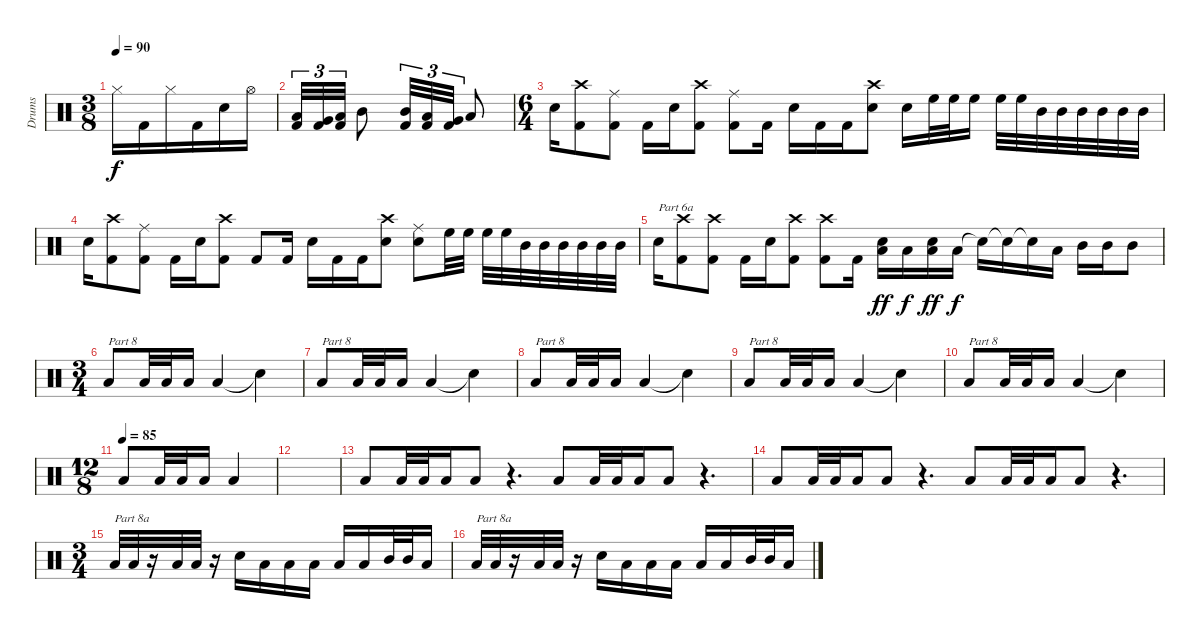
\track ("Drums" "Drums") {instrument percussion}
\staff {score}
\articulation defaults
\ts (3 8)
\tempo 90
\clef neutral
\ks c "Hi-Hat (closed)".16{dy f} "Kick (hit) 2".16 "Hi-Hat (closed)".16 "Kick (hit) 2".16 "Snare (hit) 2".16 "Hi-Hat (open)".16
|
("Low Floor Tom (hit)" "Kick (hit) 2").32{tu (3 2)} ("Very Low Tom (hit)" "Kick (hit) 2").32{tu (3 2)} ("Low Tom (hit)" "Kick (hit) 2").32{tu (3 2)} "Mid Tom (hit)".8 ("Mid Tom (hit)" "Kick (hit) 2").32{tu (3 2)} ("Low Tom (hit)" "Kick (hit) 2").32{tu (3 2)} ("Very Low Tom (hit)" "Kick (hit) 2").32{tu (3 2)} "Low Floor Tom (hit)".8 |
\ts (6 4)
"Snare (hit) 2".16 ("Crash high (hit)" "Kick (hit) 2").8 ("Ride (middle)" "Kick (hit) 2").8 "Kick (hit) 2".16 "Snare (hit) 2".16 ("Crash high (hit)" "Kick (hit) 2").8 ("Ride (middle)" "Kick (hit) 2").8 "Kick (hit) 2".16 "Snare (hit) 2".16 "Kick (hit) 2".16 "Kick (hit) 2".16 ("Crash high (hit)" "Snare (hit) 2").8 "Snare (hit) 2".16 "High Floor Tom (hit)".32 "High Floor Tom (hit)".32 "High Floor Tom (hit)".16 "High Floor Tom (hit)".32 "High Floor Tom (hit)".32 "Mid Tom (hit)".32 "Mid Tom (hit)".32 "Mid Tom (hit)".32 "Mid Tom (hit)".32 "Mid Tom (hit)".32 "Mid Tom (hit)".32 |
"Snare (hit) 2".16 ("Crash high (hit)" "Kick (hit) 2").8 ("Ride (middle)" "Kick (hit) 2").8 "Kick (hit) 2".16 "Snare (hit) 2".16 ("Crash high (hit)" "Kick (hit) 2").8 "Kick (hit) 2".8 "Kick (hit) 2".16 "Snare (hit) 2".16 "Kick (hit) 2".16 "Kick (hit) 2".16 ("Crash high (hit)" "Snare (hit) 2").8 ("Ride (middle)" "Snare (hit) 2").8 "High Floor Tom (hit)".32 "High Floor Tom (hit)".32 "High Floor Tom (hit)".32 "High Floor Tom (hit)".32 "Mid Tom (hit)".32 "Mid Tom (hit)".32 "Mid Tom (hit)".32 "Mid Tom (hit)".32 "Mid Tom (hit)".32 "Mid Tom (hit)".32 |
"Snare (hit) 2".16{txt "Part 6a"} ("Crash high (hit)" "Kick (hit) 2").8 ("Crash high (hit)" "Kick (hit) 2").8 "Kick (hit) 2".16 "Snare (hit) 2".16 ("Crash high (hit)" "Kick (hit) 2").8 ("Crash high (hit)" "Kick (hit) 2").8 "Kick (hit) 2".16 ("Low Floor Tom (hit)" "Snare (hit) 2").16{dy ff} "Low Floor Tom (hit)".16{dy f} ("Low Floor Tom (hit)" "Snare (hit) 2").16{dy ff} "Low Floor Tom (hit)".16{dy f} "Snare (hit)"{t}.16 "Snare (hit)"{t}.16 "Snare (hit)"{t}.16 "Low Floor Tom (hit)".16 "Mid Tom (hit)".16 "Mid Tom (hit)".16 "Mid Tom (hit)".8 |
\ts (3 4)
"Low Floor Tom (hit)".8{txt "Part 8"} "Low Floor Tom (hit)".32 "Low Floor Tom (hit)".32 "Low Floor Tom (hit)".16 "Low Floor Tom (hit)".4 "Snare (hit)"{t}.4 |
"Low Floor Tom (hit)".8{txt "Part 8"} "Low Floor Tom (hit)".32 "Low Floor Tom (hit)".32 "Low Floor Tom (hit)".16 "Low Floor Tom (hit)".4 "Snare (hit)"{t}.4 |
"Low Floor Tom (hit)".8{txt "Part 8"} "Low Floor Tom (hit)".32 "Low Floor Tom (hit)".32 "Low Floor Tom (hit)".16 "Low Floor Tom (hit)".4 "Snare (hit)"{t}.4 |
"Low Floor Tom (hit)".8{txt "Part 8"} "Low Floor Tom (hit)".32 "Low Floor Tom (hit)".32 "Low Floor Tom (hit)".16 "Low Floor Tom (hit)".4 "Snare (hit)"{t}.4 |
"Low Floor Tom (hit)".8{txt "Part 8"} "Low Floor Tom (hit)".32 "Low Floor Tom (hit)".32 "Low Floor Tom (hit)".16 "Low Floor Tom (hit)".4 "Snare (hit)"{t}.4 |
\ts (12 8)
\tempo (85)
"Low Floor Tom (hit)".8 "Low Floor Tom (hit)".32 "Low Floor Tom (hit)".32 "Low Floor Tom (hit)".16 "Low Floor Tom (hit)".4 |
|
"Low Floor Tom (hit)".8 "Low Floor Tom (hit)".32 "Low Floor Tom (hit)".32 "Low Floor Tom (hit)".16 "Low Floor Tom (hit)".8 r.4{d} "Low Floor Tom (hit)".8 "Low Floor Tom (hit)".32 "Low Floor Tom (hit)".32 "Low Floor Tom (hit)".16 "Low Floor Tom (hit)".8 r.4{d} |
"Low Floor Tom (hit)".8 "Low Floor Tom (hit)".32 "Low Floor Tom (hit)".32 "Low Floor Tom (hit)".16 "Low Floor Tom (hit)".8 r.4{d} "Low Floor Tom (hit)".8 "Low Floor Tom (hit)".32 "Low Floor Tom (hit)".32 "Low Floor Tom (hit)".16 "Low Floor Tom (hit)".8 r.4{d} |
\ts (3 4)
"Low Floor Tom (hit)".32{txt "Part 8a"} "Low Floor Tom (hit)".32 r.16 "Low Floor Tom (hit)".32 "Low Floor Tom (hit)".32 r.16 "Snare (hit) 2".16 "Low Floor Tom (hit)".16 "Low Floor Tom (hit)".16 "Low Floor Tom (hit)".16 "Low Floor Tom (hit)".16 "Low Floor Tom (hit)".16 "Mid Tom (hit)".32 "Mid Tom (hit)".32 "Low Floor Tom (hit)".16 |
"Low Floor Tom (hit)".32{txt "Part 8a"} "Low Floor Tom (hit)".32 r.16 "Low Floor Tom (hit)".32 "Low Floor Tom (hit)".32 r.16 "Snare (hit) 2".16 "Low Floor Tom (hit)".16 "Low Floor Tom (hit)".16 "Low Floor Tom (hit)".16 "Low Floor Tom (hit)".16 "Low Floor Tom (hit)".16 "Mid Tom (hit)".32 "Mid Tom (hit)".32 "Low Floor Tom (hit)".16
